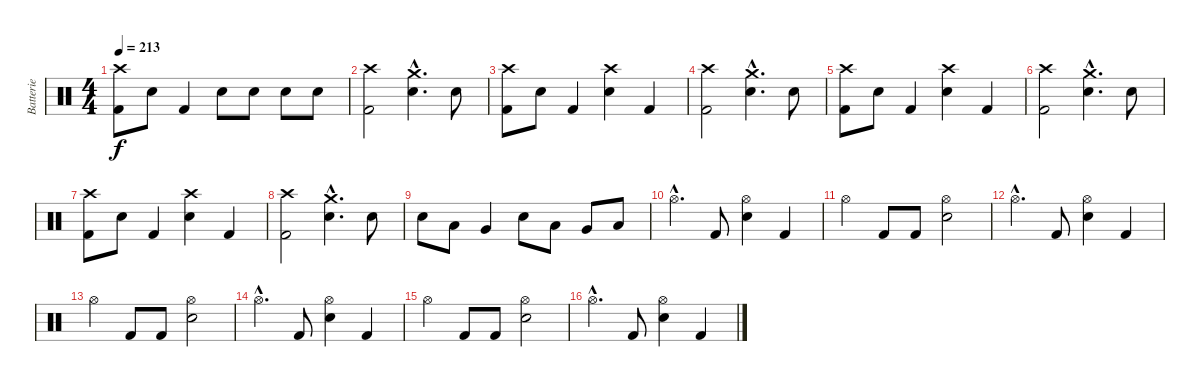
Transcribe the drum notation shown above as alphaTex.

\track ("Batterie" "Batterie") {instrument percussion}
\staff {score}
\articulation defaults
\ts (4 4)
\tempo 213
\clef neutral
\ks c
("Crash high (hit)" "Kick (hit) 2").8{dy f} "Electric Snare (hit)".8 "Kick (hit) 2".4 "Electric Snare (hit)".8 "Electric Snare (hit)".8 "Electric Snare (hit)".8 "Electric Snare (hit)".8 |
("Crash high (hit)" "Kick (hit) 2").2 ("Crash medium (hit)"{hac} "Electric Snare (hit)"{hac}).4{d} "Electric Snare (hit)".8 |
("Crash high (hit)" "Kick (hit) 2").8 "Electric Snare (hit)".8 "Kick (hit) 2".4 ("Crash high (hit)" "Electric Snare (hit)").4 "Kick (hit) 2".4 |
("Crash high (hit)" "Kick (hit) 2").2 ("Crash medium (hit)"{hac} "Electric Snare (hit)"{hac}).4{d} "Electric Snare (hit)".8 |
("Crash high (hit)" "Kick (hit) 2").8 "Electric Snare (hit)".8 "Kick (hit) 2".4 ("Crash high (hit)" "Electric Snare (hit)").4 "Kick (hit) 2".4 |
("Crash high (hit)" "Kick (hit) 2").2 ("Crash medium (hit)"{hac} "Electric Snare (hit)"{hac}).4{d} "Electric Snare (hit)".8 |
("Crash high (hit)" "Kick (hit) 2").8 "Electric Snare (hit)".8 "Kick (hit) 2".4 ("Crash high (hit)" "Electric Snare (hit)").4 "Kick (hit) 2".4 |
("Crash high (hit)" "Kick (hit) 2").2 ("Crash medium (hit)"{hac} "Electric Snare (hit)"{hac}).4{d} "Electric Snare (hit)".8 |
"Electric Snare (hit)".8 "Low Tom (hit)".8 "Very Low Tom (hit)".4 "Electric Snare (hit)".8 "Low Tom (hit)".8 "Very Low Tom (hit)".8 "Low Floor Tom (hit)".8 |
"Hi-Hat (open)"{hac}.4{d} "Kick (hit) 2".8 ("Hi-Hat (open)" "Electric Snare (hit)").4 "Kick (hit) 2".4 |
"Hi-Hat (open)".4 "Kick (hit) 2".8 "Kick (hit) 2".8 ("Hi-Hat (open)" "Electric Snare (hit)").2 |
"Hi-Hat (open)"{hac}.4{d} "Kick (hit) 2".8 ("Hi-Hat (open)" "Electric Snare (hit)").4 "Kick (hit) 2".4 |
"Hi-Hat (open)".4 "Kick (hit) 2".8 "Kick (hit) 2".8 ("Hi-Hat (open)" "Electric Snare (hit)").2 |
"Hi-Hat (open)"{hac}.4{d} "Kick (hit) 2".8 ("Hi-Hat (open)" "Electric Snare (hit)").4 "Kick (hit) 2".4 |
"Hi-Hat (open)".4 "Kick (hit) 2".8 "Kick (hit) 2".8 ("Hi-Hat (open)" "Electric Snare (hit)").2 |
"Hi-Hat (open)"{hac}.4{d} "Kick (hit) 2".8 ("Hi-Hat (open)" "Electric Snare (hit)").4 "Kick (hit) 2".4
